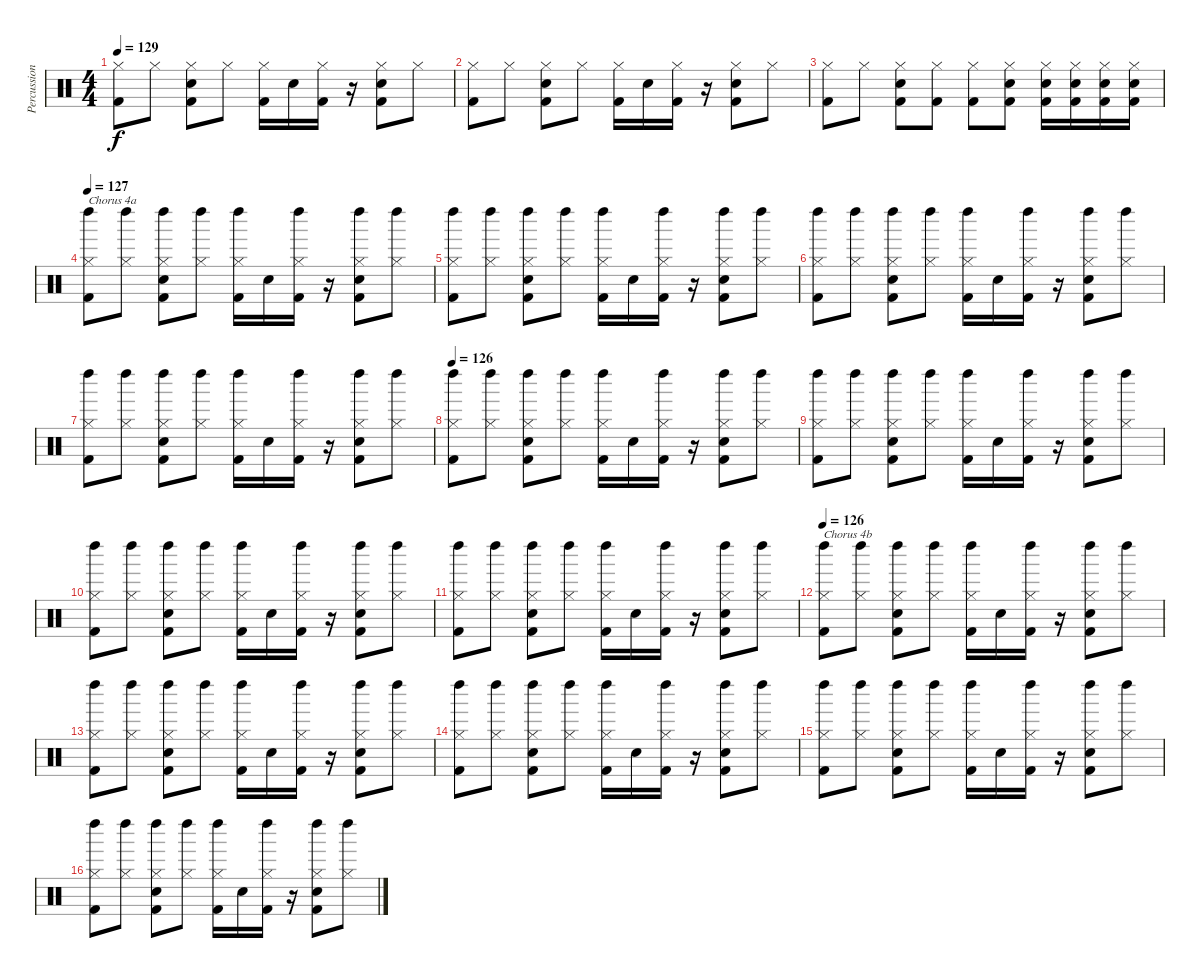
\track ("Percussion" "Percussion") {instrument percussion}
\staff {score}
\articulation defaults
\ts (4 4)
\tempo 129
\clef neutral
\ks c
("Hi-Hat (closed)" "Kick (hit) 2").8{dy f} "Hi-Hat (closed)".8 ("Hi-Hat (closed)" "Electric Snare (hit)" "Kick (hit) 2").8 "Hi-Hat (closed)".8 ("Hi-Hat (closed)" "Kick (hit) 2").16 "Electric Snare (hit)".16 ("Hi-Hat (closed)" "Kick (hit) 2").16 r.16 ("Hi-Hat (closed)" "Electric Snare (hit)" "Kick (hit) 2").8 "Hi-Hat (closed)".8 |
("Hi-Hat (closed)" "Kick (hit) 2").8 "Hi-Hat (closed)".8 ("Hi-Hat (closed)" "Electric Snare (hit)" "Kick (hit) 2").8 "Hi-Hat (closed)".8 ("Hi-Hat (closed)" "Kick (hit) 2").16 "Electric Snare (hit)".16 ("Hi-Hat (closed)" "Kick (hit) 2").16 r.16 ("Hi-Hat (closed)" "Electric Snare (hit)" "Kick (hit) 2").8 "Hi-Hat (closed)".8 |
("Hi-Hat (closed)" "Kick (hit) 2").8 "Hi-Hat (closed)".8 ("Hi-Hat (closed)" "Electric Snare (hit)" "Kick (hit) 2").8 ("Hi-Hat (closed)" "Kick (hit) 2").8 ("Hi-Hat (closed)" "Kick (hit) 2").8 ("Hi-Hat (closed)" "Electric Snare (hit)" "Kick (hit) 2").8 ("Hi-Hat (closed)" "Electric Snare (hit)" "Kick (hit) 2").16 ("Hi-Hat (closed)" "Electric Snare (hit)" "Kick (hit) 2").16 ("Hi-Hat (closed)" "Electric Snare (hit)" "Kick (hit) 2").16 ("Hi-Hat (closed)" "Electric Snare (hit)" "Kick (hit) 2").16 |
\tempo 127
("Hi-Hat (closed)" "Kick (hit) 2" "Left Maraca (hit)").8{txt "Chorus 4a"} ("Hi-Hat (closed)" "Left Maraca (hit)").8 ("Hi-Hat (closed)" "Electric Snare (hit)" "Kick (hit) 2" "Left Maraca (hit)").8 ("Hi-Hat (closed)" "Left Maraca (hit)").8 ("Hi-Hat (closed)" "Kick (hit) 2" "Left Maraca (hit)").16 "Electric Snare (hit)".16 ("Hi-Hat (closed)" "Kick (hit) 2" "Left Maraca (hit)").16 r.16 ("Hi-Hat (closed)" "Electric Snare (hit)" "Kick (hit) 2" "Left Maraca (hit)").8 ("Hi-Hat (closed)" "Left Maraca (hit)").8 |
("Hi-Hat (closed)" "Kick (hit) 2" "Left Maraca (hit)").8 ("Hi-Hat (closed)" "Left Maraca (hit)").8 ("Hi-Hat (closed)" "Electric Snare (hit)" "Kick (hit) 2" "Left Maraca (hit)").8 ("Hi-Hat (closed)" "Left Maraca (hit)").8 ("Hi-Hat (closed)" "Kick (hit) 2" "Left Maraca (hit)").16 "Electric Snare (hit)".16 ("Hi-Hat (closed)" "Kick (hit) 2" "Left Maraca (hit)").16 r.16 ("Hi-Hat (closed)" "Electric Snare (hit)" "Kick (hit) 2" "Left Maraca (hit)").8 ("Hi-Hat (closed)" "Left Maraca (hit)").8 |
("Hi-Hat (closed)" "Kick (hit) 2" "Left Maraca (hit)").8 ("Hi-Hat (closed)" "Left Maraca (hit)").8 ("Hi-Hat (closed)" "Electric Snare (hit)" "Kick (hit) 2" "Left Maraca (hit)").8 ("Hi-Hat (closed)" "Left Maraca (hit)").8 ("Hi-Hat (closed)" "Kick (hit) 2" "Left Maraca (hit)").16 "Electric Snare (hit)".16 ("Hi-Hat (closed)" "Kick (hit) 2" "Left Maraca (hit)").16 r.16 ("Hi-Hat (closed)" "Electric Snare (hit)" "Kick (hit) 2" "Left Maraca (hit)").8 ("Hi-Hat (closed)" "Left Maraca (hit)").8 |
("Hi-Hat (closed)" "Kick (hit) 2" "Left Maraca (hit)").8 ("Hi-Hat (closed)" "Left Maraca (hit)").8 ("Hi-Hat (closed)" "Electric Snare (hit)" "Kick (hit) 2" "Left Maraca (hit)").8 ("Hi-Hat (closed)" "Left Maraca (hit)").8 ("Hi-Hat (closed)" "Kick (hit) 2" "Left Maraca (hit)").16 "Electric Snare (hit)".16 ("Hi-Hat (closed)" "Kick (hit) 2" "Left Maraca (hit)").16 r.16 ("Hi-Hat (closed)" "Electric Snare (hit)" "Kick (hit) 2" "Left Maraca (hit)").8 ("Hi-Hat (closed)" "Left Maraca (hit)").8 |
\tempo 126
("Hi-Hat (closed)" "Kick (hit) 2" "Left Maraca (hit)").8 ("Hi-Hat (closed)" "Left Maraca (hit)").8 ("Hi-Hat (closed)" "Electric Snare (hit)" "Kick (hit) 2" "Left Maraca (hit)").8 ("Hi-Hat (closed)" "Left Maraca (hit)").8 ("Hi-Hat (closed)" "Kick (hit) 2" "Left Maraca (hit)").16 "Electric Snare (hit)".16 ("Hi-Hat (closed)" "Kick (hit) 2" "Left Maraca (hit)").16 r.16 ("Hi-Hat (closed)" "Electric Snare (hit)" "Kick (hit) 2" "Left Maraca (hit)").8 ("Hi-Hat (closed)" "Left Maraca (hit)").8 |
("Hi-Hat (closed)" "Kick (hit) 2" "Left Maraca (hit)").8 ("Hi-Hat (closed)" "Left Maraca (hit)").8 ("Hi-Hat (closed)" "Electric Snare (hit)" "Kick (hit) 2" "Left Maraca (hit)").8 ("Hi-Hat (closed)" "Left Maraca (hit)").8 ("Hi-Hat (closed)" "Kick (hit) 2" "Left Maraca (hit)").16 "Electric Snare (hit)".16 ("Hi-Hat (closed)" "Kick (hit) 2" "Left Maraca (hit)").16 r.16 ("Hi-Hat (closed)" "Electric Snare (hit)" "Kick (hit) 2" "Left Maraca (hit)").8 ("Hi-Hat (closed)" "Left Maraca (hit)").8 |
("Hi-Hat (closed)" "Kick (hit) 2" "Left Maraca (hit)").8 ("Hi-Hat (closed)" "Left Maraca (hit)").8 ("Hi-Hat (closed)" "Electric Snare (hit)" "Kick (hit) 2" "Left Maraca (hit)").8 ("Hi-Hat (closed)" "Left Maraca (hit)").8 ("Hi-Hat (closed)" "Kick (hit) 2" "Left Maraca (hit)").16 "Electric Snare (hit)".16 ("Hi-Hat (closed)" "Kick (hit) 2" "Left Maraca (hit)").16 r.16 ("Hi-Hat (closed)" "Electric Snare (hit)" "Kick (hit) 2" "Left Maraca (hit)").8 ("Hi-Hat (closed)" "Left Maraca (hit)").8 |
("Hi-Hat (closed)" "Kick (hit) 2" "Left Maraca (hit)").8 ("Hi-Hat (closed)" "Left Maraca (hit)").8 ("Hi-Hat (closed)" "Electric Snare (hit)" "Kick (hit) 2" "Left Maraca (hit)").8 ("Hi-Hat (closed)" "Left Maraca (hit)").8 ("Hi-Hat (closed)" "Kick (hit) 2" "Left Maraca (hit)").16 "Electric Snare (hit)".16 ("Hi-Hat (closed)" "Kick (hit) 2" "Left Maraca (hit)").16 r.16 ("Hi-Hat (closed)" "Electric Snare (hit)" "Kick (hit) 2" "Left Maraca (hit)").8 ("Hi-Hat (closed)" "Left Maraca (hit)").8 |
\tempo 126
("Hi-Hat (closed)" "Kick (hit) 2" "Left Maraca (hit)").8{txt "Chorus 4b"} ("Hi-Hat (closed)" "Left Maraca (hit)").8 ("Hi-Hat (closed)" "Electric Snare (hit)" "Kick (hit) 2" "Left Maraca (hit)").8 ("Hi-Hat (closed)" "Left Maraca (hit)").8 ("Hi-Hat (closed)" "Kick (hit) 2" "Left Maraca (hit)").16 "Electric Snare (hit)".16 ("Hi-Hat (closed)" "Kick (hit) 2" "Left Maraca (hit)").16 r.16 ("Hi-Hat (closed)" "Electric Snare (hit)" "Kick (hit) 2" "Left Maraca (hit)").8 ("Hi-Hat (closed)" "Left Maraca (hit)").8 |
("Hi-Hat (closed)" "Kick (hit) 2" "Left Maraca (hit)").8 ("Hi-Hat (closed)" "Left Maraca (hit)").8 ("Hi-Hat (closed)" "Electric Snare (hit)" "Kick (hit) 2" "Left Maraca (hit)").8 ("Hi-Hat (closed)" "Left Maraca (hit)").8 ("Hi-Hat (closed)" "Kick (hit) 2" "Left Maraca (hit)").16 "Electric Snare (hit)".16 ("Hi-Hat (closed)" "Kick (hit) 2" "Left Maraca (hit)").16 r.16 ("Hi-Hat (closed)" "Electric Snare (hit)" "Kick (hit) 2" "Left Maraca (hit)").8 ("Hi-Hat (closed)" "Left Maraca (hit)").8 |
("Hi-Hat (closed)" "Kick (hit) 2" "Left Maraca (hit)").8 ("Hi-Hat (closed)" "Left Maraca (hit)").8 ("Hi-Hat (closed)" "Electric Snare (hit)" "Kick (hit) 2" "Left Maraca (hit)").8 ("Hi-Hat (closed)" "Left Maraca (hit)").8 ("Hi-Hat (closed)" "Kick (hit) 2" "Left Maraca (hit)").16 "Electric Snare (hit)".16 ("Hi-Hat (closed)" "Kick (hit) 2" "Left Maraca (hit)").16 r.16 ("Hi-Hat (closed)" "Electric Snare (hit)" "Kick (hit) 2" "Left Maraca (hit)").8 ("Hi-Hat (closed)" "Left Maraca (hit)").8 |
("Hi-Hat (closed)" "Kick (hit) 2" "Left Maraca (hit)").8 ("Hi-Hat (closed)" "Left Maraca (hit)").8 ("Hi-Hat (closed)" "Electric Snare (hit)" "Kick (hit) 2" "Left Maraca (hit)").8 ("Hi-Hat (closed)" "Left Maraca (hit)").8 ("Hi-Hat (closed)" "Kick (hit) 2" "Left Maraca (hit)").16 "Electric Snare (hit)".16 ("Hi-Hat (closed)" "Kick (hit) 2" "Left Maraca (hit)").16 r.16 ("Hi-Hat (closed)" "Electric Snare (hit)" "Kick (hit) 2" "Left Maraca (hit)").8 ("Hi-Hat (closed)" "Left Maraca (hit)").8 |
("Hi-Hat (closed)" "Kick (hit) 2" "Left Maraca (hit)").8 ("Hi-Hat (closed)" "Left Maraca (hit)").8 ("Hi-Hat (closed)" "Electric Snare (hit)" "Kick (hit) 2" "Left Maraca (hit)").8 ("Hi-Hat (closed)" "Left Maraca (hit)").8 ("Hi-Hat (closed)" "Kick (hit) 2" "Left Maraca (hit)").16 "Electric Snare (hit)".16 ("Hi-Hat (closed)" "Kick (hit) 2" "Left Maraca (hit)").16 r.16 ("Hi-Hat (closed)" "Electric Snare (hit)" "Kick (hit) 2" "Left Maraca (hit)").8 ("Hi-Hat (closed)" "Left Maraca (hit)").8
